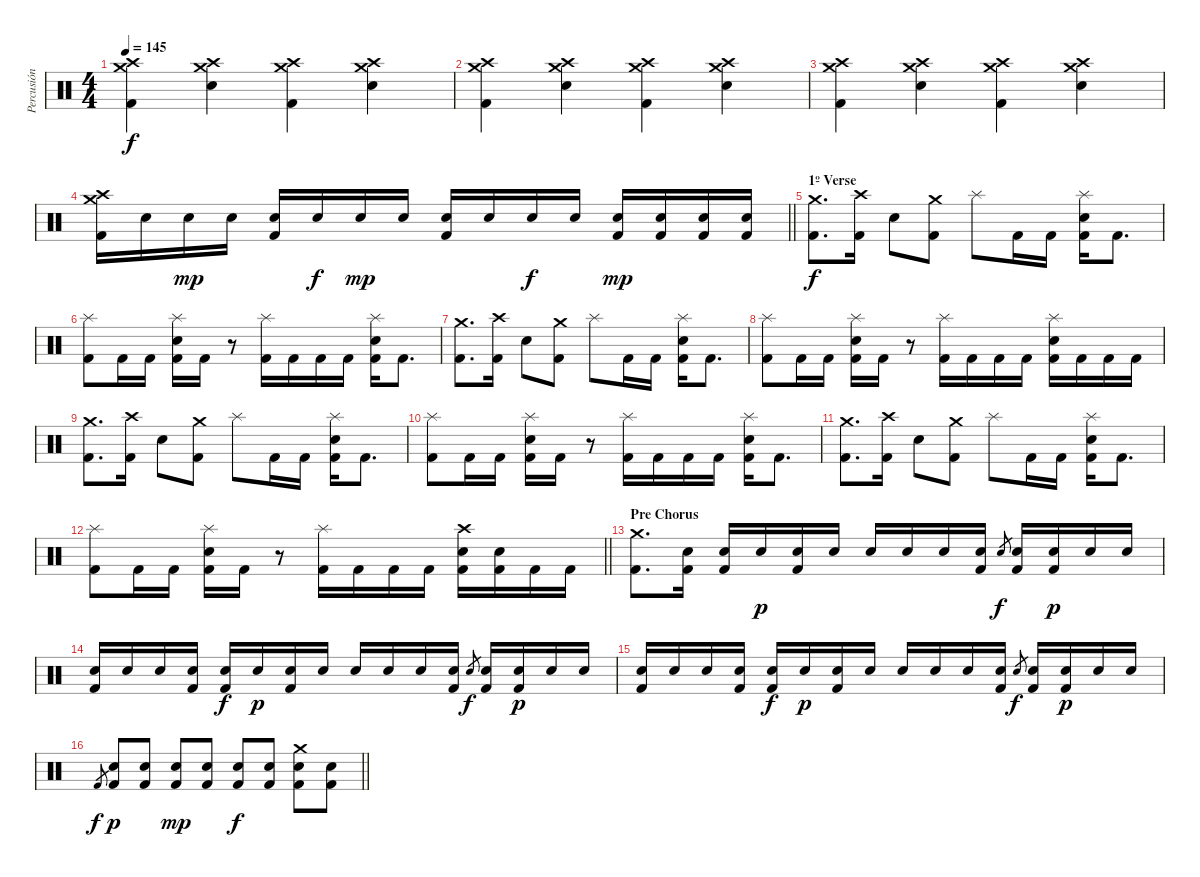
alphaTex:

\track ("Percusión" "Percusión") {instrument percussion}
\staff {score}
\articulation defaults
\ts (4 4)
\tempo 145
\clef neutral
\ks c
("Crash medium (hit)" "Crash high (hit)" "Kick (hit) 2").4{dy f} ("Crash medium (hit)" "Crash high (hit)" "Electric Snare (hit)").4 ("Crash medium (hit)" "Crash high (hit)" "Kick (hit) 2").4 ("Crash medium (hit)" "Crash high (hit)" "Electric Snare (hit)").4 |
("Crash medium (hit)" "Crash high (hit)" "Kick (hit) 2").4 ("Crash medium (hit)" "Crash high (hit)" "Electric Snare (hit)").4 ("Crash medium (hit)" "Crash high (hit)" "Kick (hit) 2").4 ("Crash medium (hit)" "Crash high (hit)" "Electric Snare (hit)").4 |
("Crash medium (hit)" "Crash high (hit)" "Kick (hit) 2").4 ("Crash medium (hit)" "Crash high (hit)" "Electric Snare (hit)").4 ("Crash medium (hit)" "Crash high (hit)" "Kick (hit) 2").4 ("Crash medium (hit)" "Crash high (hit)" "Electric Snare (hit)").4 |
\barLineRight lightlight
("Crash medium (hit)" "Crash high (hit)" "Kick (hit) 2").16 "Electric Snare (hit)".16 "Electric Snare (hit)".16{dy mp} "Electric Snare (hit)".16 ("Electric Snare (hit)" "Kick (hit) 2").16 "Electric Snare (hit)".16{dy f} "Electric Snare (hit)".16{dy mp} "Electric Snare (hit)".16 ("Electric Snare (hit)" "Kick (hit) 2").16 "Electric Snare (hit)".16 "Electric Snare (hit)".16{dy f} "Electric Snare (hit)".16 ("Electric Snare (hit)" "Kick (hit) 2").16{dy mp} ("Electric Snare (hit)" "Kick (hit) 2").16 ("Electric Snare (hit)" "Kick (hit) 2").16 ("Electric Snare (hit)" "Kick (hit) 2").16 |
\section ("" "1º Verse")
("Crash medium (hit)" "Kick (hit) 2").8{d dy f} ("Crash high (hit)" "Kick (hit) 2").16 "Electric Snare (hit)".8 ("Crash medium (hit)" "Kick (hit) 2").8 "Splash (hit)".8 "Kick (hit) 2".16 "Kick (hit) 2".16 ("Splash (hit)" "Electric Snare (hit)" "Kick (hit) 2").16 "Kick (hit) 2".8{d} |
("Splash (hit)" "Kick (hit) 2").8 "Kick (hit) 2".16 "Kick (hit) 2".16 ("Splash (hit)" "Electric Snare (hit)" "Kick (hit) 2").16 "Kick (hit) 2".16 r.8 ("Splash (hit)" "Kick (hit) 2").16 "Kick (hit) 2".16 "Kick (hit) 2".16 "Kick (hit) 2".16 ("Splash (hit)" "Electric Snare (hit)" "Kick (hit) 2").16 "Kick (hit) 2".8{d} |
("Crash medium (hit)" "Kick (hit) 2").8{d} ("Crash high (hit)" "Kick (hit) 2").16 "Electric Snare (hit)".8 ("Crash medium (hit)" "Kick (hit) 2").8 "Splash (hit)".8 "Kick (hit) 2".16 "Kick (hit) 2".16 ("Splash (hit)" "Electric Snare (hit)" "Kick (hit) 2").16 "Kick (hit) 2".8{d} |
("Splash (hit)" "Kick (hit) 2").8 "Kick (hit) 2".16 "Kick (hit) 2".16 ("Splash (hit)" "Electric Snare (hit)" "Kick (hit) 2").16 "Kick (hit) 2".16 r.8 ("Splash (hit)" "Kick (hit) 2").16 "Kick (hit) 2".16 "Kick (hit) 2".16 "Kick (hit) 2".16 ("Splash (hit)" "Electric Snare (hit)" "Kick (hit) 2").16 "Kick (hit) 2".16 "Kick (hit) 2".16 "Kick (hit) 2".16 |
("Crash medium (hit)" "Kick (hit) 2").8{d} ("Crash high (hit)" "Kick (hit) 2").16 "Electric Snare (hit)".8 ("Crash medium (hit)" "Kick (hit) 2").8 "Splash (hit)".8 "Kick (hit) 2".16 "Kick (hit) 2".16 ("Splash (hit)" "Electric Snare (hit)" "Kick (hit) 2").16 "Kick (hit) 2".8{d} |
("Splash (hit)" "Kick (hit) 2").8 "Kick (hit) 2".16 "Kick (hit) 2".16 ("Splash (hit)" "Electric Snare (hit)" "Kick (hit) 2").16 "Kick (hit) 2".16 r.8 ("Splash (hit)" "Kick (hit) 2").16 "Kick (hit) 2".16 "Kick (hit) 2".16 "Kick (hit) 2".16 ("Splash (hit)" "Electric Snare (hit)" "Kick (hit) 2").16 "Kick (hit) 2".8{d} |
("Crash medium (hit)" "Kick (hit) 2").8{d} ("Crash high (hit)" "Kick (hit) 2").16 "Electric Snare (hit)".8 ("Crash medium (hit)" "Kick (hit) 2").8 "Splash (hit)".8 "Kick (hit) 2".16 "Kick (hit) 2".16 ("Splash (hit)" "Electric Snare (hit)" "Kick (hit) 2").16 "Kick (hit) 2".8{d} |
\barLineRight lightlight
("Splash (hit)" "Kick (hit) 2").8 "Kick (hit) 2".16 "Kick (hit) 2".16 ("Splash (hit)" "Electric Snare (hit)" "Kick (hit) 2").16 "Kick (hit) 2".16 r.8 ("Splash (hit)" "Kick (hit) 2").16 "Kick (hit) 2".16 "Kick (hit) 2".16 "Kick (hit) 2".16 ("Crash high (hit)" "Electric Snare (hit)" "Kick (hit) 2").16 ("Electric Snare (hit)" "Kick (hit) 2").16 "Kick (hit) 2".16 "Kick (hit) 2".16 |
\section ("" "Pre Chorus")
("Crash medium (hit)" "Kick (hit) 2").8{d} ("Electric Snare (hit)" "Kick (hit) 2").16 ("Electric Snare (hit)" "Kick (hit) 2").16 "Electric Snare (hit)".16{dy p} ("Electric Snare (hit)" "Kick (hit) 2").16 "Electric Snare (hit)".16 "Electric Snare (hit)".16 "Electric Snare (hit)".16 "Electric Snare (hit)".16 ("Electric Snare (hit)" "Kick (hit) 2").16 "Electric Snare (hit)".8{gr dy f} ("Electric Snare (hit)" "Kick (hit) 2").16 ("Electric Snare (hit)" "Kick (hit) 2").16{dy p} "Electric Snare (hit)".16 "Electric Snare (hit)".16 |
("Electric Snare (hit)" "Kick (hit) 2").16 "Electric Snare (hit)".16 "Electric Snare (hit)".16 ("Electric Snare (hit)" "Kick (hit) 2").16 ("Electric Snare (hit)" "Kick (hit) 2").16{dy f} "Electric Snare (hit)".16{dy p} ("Electric Snare (hit)" "Kick (hit) 2").16 "Electric Snare (hit)".16 "Electric Snare (hit)".16 "Electric Snare (hit)".16 "Electric Snare (hit)".16 ("Electric Snare (hit)" "Kick (hit) 2").16 "Electric Snare (hit)".8{gr dy f} ("Electric Snare (hit)" "Kick (hit) 2").16 ("Electric Snare (hit)" "Kick (hit) 2").16{dy p} "Electric Snare (hit)".16 "Electric Snare (hit)".16 |
("Electric Snare (hit)" "Kick (hit) 2").16 "Electric Snare (hit)".16 "Electric Snare (hit)".16 ("Electric Snare (hit)" "Kick (hit) 2").16 ("Electric Snare (hit)" "Kick (hit) 2").16{dy f} "Electric Snare (hit)".16{dy p} ("Electric Snare (hit)" "Kick (hit) 2").16 "Electric Snare (hit)".16 "Electric Snare (hit)".16 "Electric Snare (hit)".16 "Electric Snare (hit)".16 ("Electric Snare (hit)" "Kick (hit) 2").16 "Electric Snare (hit)".8{gr dy f} ("Electric Snare (hit)" "Kick (hit) 2").16 ("Electric Snare (hit)" "Kick (hit) 2").16{dy p} "Electric Snare (hit)".16 "Electric Snare (hit)".16 |
\barLineRight lightlight "Kick (hit) 2".8{gr dy f}
("Electric Snare (hit)" "Kick (hit) 2").8{dy p} ("Electric Snare (hit)" "Kick (hit) 2").8 ("Electric Snare (hit)" "Kick (hit) 2").8{dy mp} ("Electric Snare (hit)" "Kick (hit) 2").8 ("Electric Snare (hit)" "Kick (hit) 2").8{dy f} ("Electric Snare (hit)" "Kick (hit) 2").8 ("Crash medium (hit)" "Electric Snare (hit)" "Kick (hit) 2").8 ("Electric Snare (hit)" "Kick (hit) 2").8
